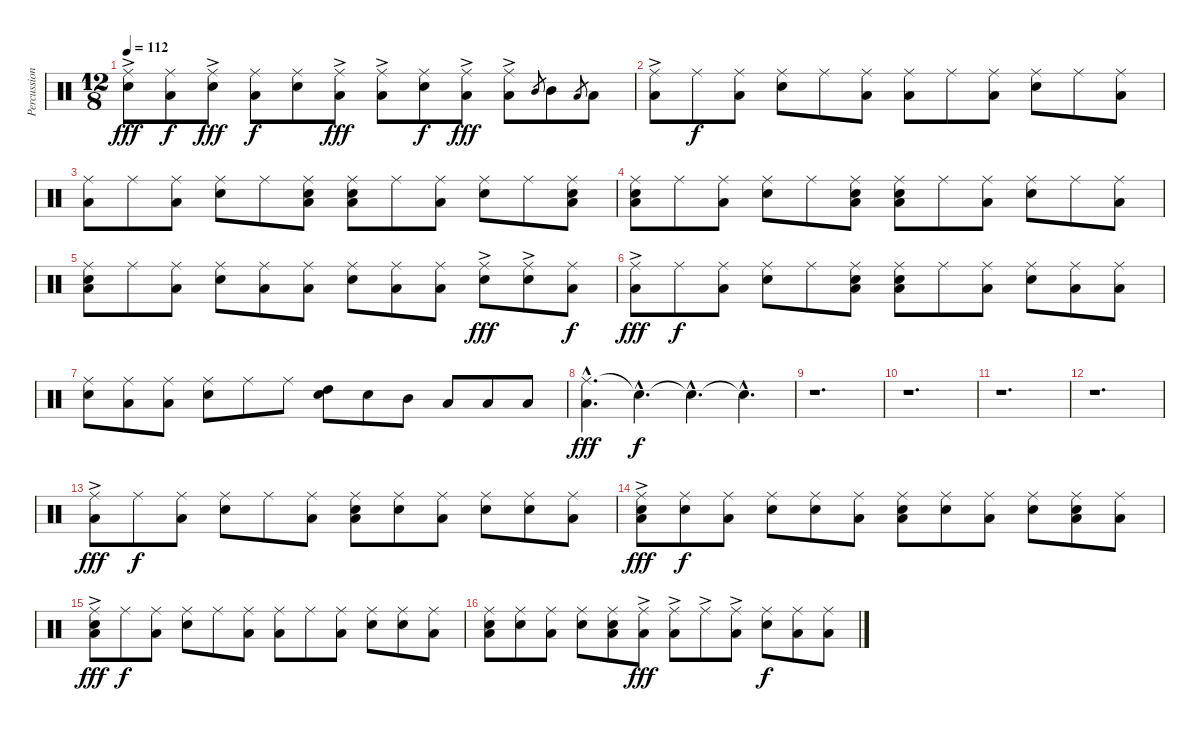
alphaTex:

\track ("Percussion" "Percussion") {instrument percussion}
\staff {score}
\articulation defaults
\ts (12 8)
\tempo 112
\clef neutral
\ks c
("Ride (middle)"{ac} "Snare (hit) 2").8{dy fff} ("Ride (middle)" "Low Floor Tom (hit)").8{dy f} ("Ride (middle)"{ac} "Snare (hit) 2").8{dy fff} ("Ride (middle)" "Low Floor Tom (hit)").8{dy f} ("Ride (middle)" "Snare (hit) 2").8 ("Ride (middle)"{ac} "Low Floor Tom (hit)").8{dy fff} ("Ride (middle)"{ac} "Low Floor Tom (hit)").8 ("Ride (middle)" "Snare (hit) 2").8{dy f} ("Ride (middle)"{ac} "Low Floor Tom (hit)").8{dy fff} ("Ride (middle)"{ac} "Low Floor Tom (hit)").8 "Mid Tom (hit)".8{gr} "Mid Tom (hit)".8 "Low Tom (hit)".8{gr} "Low Tom (hit)".8 |
("Ride (middle)"{ac} "Low Floor Tom (hit)").8 "Ride (middle)".8{dy f} ("Ride (middle)" "Low Floor Tom (hit)").8 ("Ride (middle)" "Snare (hit) 2").8 "Ride (middle)".8 ("Ride (middle)" "Low Floor Tom (hit)").8 ("Ride (middle)" "Low Floor Tom (hit)").8 "Ride (middle)".8 ("Ride (middle)" "Low Floor Tom (hit)").8 ("Ride (middle)" "Snare (hit) 2").8 "Ride (middle)".8 ("Ride (middle)" "Low Floor Tom (hit)").8 |
("Ride (middle)" "Low Floor Tom (hit)").8 "Ride (middle)".8 ("Ride (middle)" "Low Floor Tom (hit)").8 ("Ride (middle)" "Snare (hit) 2").8 "Ride (middle)".8 ("Ride (middle)" "Snare (hit) 2" "Low Floor Tom (hit)").8 ("Ride (middle)" "Snare (hit) 2" "Low Floor Tom (hit)").8 "Ride (middle)".8 ("Ride (middle)" "Low Floor Tom (hit)").8 ("Ride (middle)" "Snare (hit) 2").8 "Ride (middle)".8 ("Ride (middle)" "Snare (hit) 2" "Low Floor Tom (hit)").8 |
("Ride (middle)" "Snare (hit) 2" "Low Floor Tom (hit)").8 "Ride (middle)".8 ("Ride (middle)" "Low Floor Tom (hit)").8 ("Ride (middle)" "Snare (hit) 2").8 "Ride (middle)".8 ("Ride (middle)" "Snare (hit) 2" "Low Floor Tom (hit)").8 ("Ride (middle)" "Snare (hit) 2" "Low Floor Tom (hit)").8 "Ride (middle)".8 ("Ride (middle)" "Low Floor Tom (hit)").8 ("Ride (middle)" "Snare (hit) 2").8 "Ride (middle)".8 ("Ride (middle)" "Low Floor Tom (hit)").8 |
("Ride (middle)" "Snare (hit) 2" "Low Floor Tom (hit)").8 "Ride (middle)".8 ("Ride (middle)" "Low Floor Tom (hit)").8 ("Ride (middle)" "Snare (hit) 2").8 ("Ride (middle)" "Low Floor Tom (hit)").8 ("Ride (middle)" "Low Floor Tom (hit)").8 ("Ride (middle)" "Snare (hit) 2").8 ("Ride (middle)" "Low Floor Tom (hit)").8 ("Ride (middle)" "Low Floor Tom (hit)").8 ("Ride (middle)"{ac} "Snare (hit) 2").8{dy fff} ("Ride (middle)"{ac} "Snare (hit) 2").8 ("Ride (middle)" "Low Floor Tom (hit)").8{dy f} |
("Ride (middle)"{ac} "Low Floor Tom (hit)").8{dy fff} "Ride (middle)".8{dy f} ("Ride (middle)" "Low Floor Tom (hit)").8 ("Ride (middle)" "Snare (hit) 2").8 "Ride (middle)".8 ("Ride (middle)" "Snare (hit) 2" "Low Floor Tom (hit)").8 ("Ride (middle)" "Snare (hit) 2" "Low Floor Tom (hit)").8 "Ride (middle)".8 ("Ride (middle)" "Low Floor Tom (hit)").8 ("Ride (middle)" "Snare (hit) 2").8 ("Ride (middle)" "Low Floor Tom (hit)").8 ("Ride (middle)" "Low Floor Tom (hit)").8 |
("Ride (middle)" "Snare (hit) 2").8 ("Ride (middle)" "Low Floor Tom (hit)").8 ("Ride (middle)" "Low Floor Tom (hit)").8 ("Ride (middle)" "Snare (hit) 2").8 "Ride (middle)".8 "Ride (middle)".8 ("High Tom (hit)" "Snare (hit) 2").8 "Snare (hit) 2".8 "Mid Tom (hit)".8 "Low Tom (hit)".8 "Low Tom (hit)".8 "Low Tom (hit)".8 |
("Ride (middle)"{hac} "Low Floor Tom (hit)"{hac}).4{d dy fff} "Snare (hit)"{hac t}.4{d dy f} "Snare (hit)"{hac t}.4{d} "Snare (hit)"{hac t}.4{d} |
r.1{d} |
r.1{d} |
r.1{d} |
r.1{d} |
("Ride (middle)"{ac} "Low Floor Tom (hit)").8{dy fff} "Ride (middle)".8{dy f} ("Ride (middle)" "Low Floor Tom (hit)").8 ("Ride (middle)" "Snare (hit) 2").8 "Ride (middle)".8 ("Ride (middle)" "Low Floor Tom (hit)").8 ("Ride (middle)" "Snare (hit) 2" "Low Floor Tom (hit)").8 ("Ride (middle)" "Snare (hit) 2").8 ("Ride (middle)" "Low Floor Tom (hit)").8 ("Ride (middle)" "Snare (hit) 2").8 ("Ride (middle)" "Snare (hit) 2").8 ("Ride (middle)" "Low Floor Tom (hit)").8 |
("Ride (middle)"{ac} "Snare (hit) 2" "Low Floor Tom (hit)").8{dy fff} ("Ride (middle)" "Snare (hit) 2").8{dy f} ("Ride (middle)" "Low Floor Tom (hit)").8 ("Ride (middle)" "Snare (hit) 2").8 ("Ride (middle)" "Snare (hit) 2").8 ("Ride (middle)" "Low Floor Tom (hit)").8 ("Ride (middle)" "Snare (hit) 2" "Low Floor Tom (hit)").8 ("Ride (middle)" "Snare (hit) 2").8 ("Ride (middle)" "Low Floor Tom (hit)").8 ("Ride (middle)" "Snare (hit) 2").8 ("Ride (middle)" "Snare (hit) 2" "Low Floor Tom (hit)").8 ("Ride (middle)" "Low Floor Tom (hit)").8 |
("Ride (middle)"{ac} "Snare (hit) 2" "Low Floor Tom (hit)").8{dy fff} "Ride (middle)".8{dy f} ("Ride (middle)" "Low Floor Tom (hit)").8 ("Ride (middle)" "Snare (hit) 2").8 "Ride (middle)".8 ("Ride (middle)" "Low Floor Tom (hit)").8 ("Ride (middle)" "Low Floor Tom (hit)").8 "Ride (middle)".8 ("Ride (middle)" "Low Floor Tom (hit)").8 ("Ride (middle)" "Snare (hit) 2").8 ("Ride (middle)" "Snare (hit) 2").8 ("Ride (middle)" "Low Floor Tom (hit)").8 |
("Ride (middle)" "Snare (hit) 2" "Low Floor Tom (hit)").8 ("Ride (middle)" "Snare (hit) 2").8 ("Ride (middle)" "Low Floor Tom (hit)").8 ("Ride (middle)" "Snare (hit) 2").8 ("Ride (middle)" "Snare (hit) 2" "Low Floor Tom (hit)").8 ("Ride (middle)"{ac} "Low Floor Tom (hit)").8{dy fff} ("Ride (middle)"{ac} "Low Floor Tom (hit)").8 "Ride (middle)"{ac}.8 ("Ride (middle)"{ac} "Low Floor Tom (hit)").8 ("Ride (middle)" "Snare (hit) 2").8{dy f} ("Ride (middle)" "Low Floor Tom (hit)").8 ("Ride (middle)" "Low Floor Tom (hit)").8
